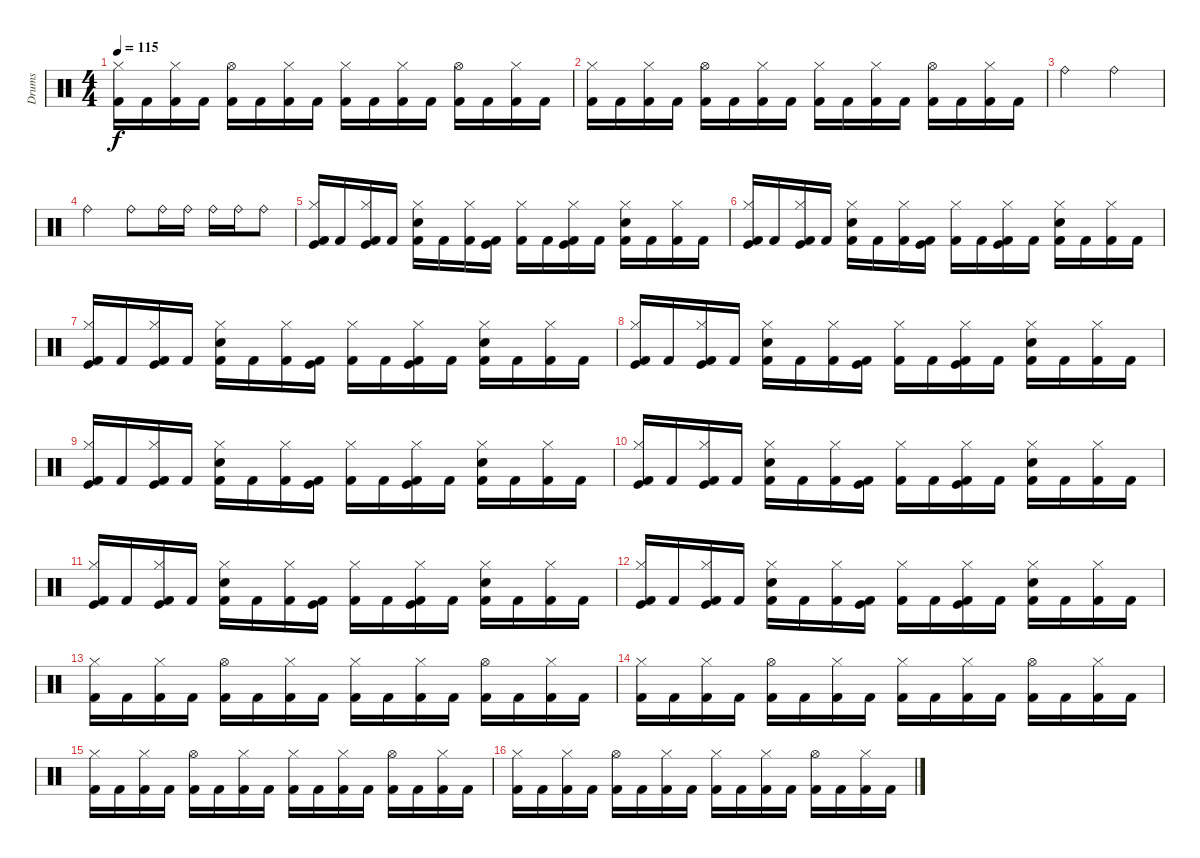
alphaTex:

\track ("Drums" "Drums") {instrument percussion}
\staff {score}
\articulation defaults
\ts (4 4)
\tempo 115
\clef neutral
\ks c
("Kick (hit) 2" "Hi-Hat (closed)").16{dy f} "Kick (hit) 2".16 ("Kick (hit) 2" "Hi-Hat (closed)").16 "Kick (hit) 2".16 ("Kick (hit) 2" "Hi-Hat (open)").16 "Kick (hit) 2".16 ("Kick (hit) 2" "Hi-Hat (closed)").16 "Kick (hit) 2".16 ("Kick (hit) 2" "Hi-Hat (closed)").16 "Kick (hit) 2".16 ("Kick (hit) 2" "Hi-Hat (closed)").16 "Kick (hit) 2".16 ("Kick (hit) 2" "Hi-Hat (open)").16 "Kick (hit) 2".16 ("Kick (hit) 2" "Hi-Hat (closed)").16 "Kick (hit) 2".16 |
("Kick (hit) 2" "Hi-Hat (closed)").16 "Kick (hit) 2".16 ("Kick (hit) 2" "Hi-Hat (closed)").16 "Kick (hit) 2".16 ("Kick (hit) 2" "Hi-Hat (open)").16 "Kick (hit) 2".16 ("Kick (hit) 2" "Hi-Hat (closed)").16 "Kick (hit) 2".16 ("Kick (hit) 2" "Hi-Hat (closed)").16 "Kick (hit) 2".16 ("Kick (hit) 2" "Hi-Hat (closed)").16 "Kick (hit) 2".16 ("Kick (hit) 2" "Hi-Hat (open)").16 "Kick (hit) 2".16 ("Kick (hit) 2" "Hi-Hat (closed)").16 "Kick (hit) 2".16 |
"Ride (bell)".2 "Ride (bell)".2 |
"Ride (bell)".2 "Ride (bell)".8 "Ride (bell)".16 "Ride (bell)".16 "Ride (bell)".16 "Ride (bell)".16 "Ride (bell)".8 |
("Kick (hit) 2" "Hi-Hat (closed)" "Kick (hit)").16 "Kick (hit) 2".16 ("Kick (hit) 2" "Hi-Hat (closed)" "Kick (hit)").16 "Kick (hit) 2".16 ("Kick (hit) 2" "Hi-Hat (closed)" "Snare (hit) 2").16 "Kick (hit) 2".16 ("Kick (hit) 2" "Hi-Hat (closed)").16 ("Kick (hit) 2" "Kick (hit)").16 ("Kick (hit) 2" "Hi-Hat (closed)").16 "Kick (hit) 2".16 ("Kick (hit) 2" "Hi-Hat (closed)" "Kick (hit)").16 "Kick (hit) 2".16 ("Kick (hit) 2" "Hi-Hat (closed)" "Snare (hit) 2").16 "Kick (hit) 2".16 ("Kick (hit) 2" "Hi-Hat (closed)").16 "Kick (hit) 2".16 |
("Kick (hit) 2" "Hi-Hat (closed)" "Kick (hit)").16 "Kick (hit) 2".16 ("Kick (hit) 2" "Hi-Hat (closed)" "Kick (hit)").16 "Kick (hit) 2".16 ("Kick (hit) 2" "Hi-Hat (closed)" "Snare (hit) 2").16 "Kick (hit) 2".16 ("Kick (hit) 2" "Hi-Hat (closed)").16 ("Kick (hit) 2" "Kick (hit)").16 ("Kick (hit) 2" "Hi-Hat (closed)").16 "Kick (hit) 2".16 ("Kick (hit) 2" "Hi-Hat (closed)" "Kick (hit)").16 "Kick (hit) 2".16 ("Kick (hit) 2" "Hi-Hat (closed)" "Snare (hit) 2").16 "Kick (hit) 2".16 ("Kick (hit) 2" "Hi-Hat (closed)").16 "Kick (hit) 2".16 |
("Kick (hit) 2" "Hi-Hat (closed)" "Kick (hit)").16 "Kick (hit) 2".16 ("Kick (hit) 2" "Hi-Hat (closed)" "Kick (hit)").16 "Kick (hit) 2".16 ("Kick (hit) 2" "Hi-Hat (closed)" "Snare (hit) 2").16 "Kick (hit) 2".16 ("Kick (hit) 2" "Hi-Hat (closed)").16 ("Kick (hit) 2" "Kick (hit)").16 ("Kick (hit) 2" "Hi-Hat (closed)").16 "Kick (hit) 2".16 ("Kick (hit) 2" "Hi-Hat (closed)" "Kick (hit)").16 "Kick (hit) 2".16 ("Kick (hit) 2" "Hi-Hat (closed)" "Snare (hit) 2").16 "Kick (hit) 2".16 ("Kick (hit) 2" "Hi-Hat (closed)").16 "Kick (hit) 2".16 |
("Kick (hit) 2" "Hi-Hat (closed)" "Kick (hit)").16 "Kick (hit) 2".16 ("Kick (hit) 2" "Hi-Hat (closed)" "Kick (hit)").16 "Kick (hit) 2".16 ("Kick (hit) 2" "Hi-Hat (closed)" "Snare (hit) 2").16 "Kick (hit) 2".16 ("Kick (hit) 2" "Hi-Hat (closed)").16 ("Kick (hit) 2" "Kick (hit)").16 ("Kick (hit) 2" "Hi-Hat (closed)").16 "Kick (hit) 2".16 ("Kick (hit) 2" "Hi-Hat (closed)" "Kick (hit)").16 "Kick (hit) 2".16 ("Kick (hit) 2" "Hi-Hat (closed)" "Snare (hit) 2").16 "Kick (hit) 2".16 ("Kick (hit) 2" "Hi-Hat (closed)").16 "Kick (hit) 2".16 |
("Kick (hit)" "Hi-Hat (closed)" "Kick (hit) 2").16 "Kick (hit) 2".16 ("Kick (hit) 2" "Hi-Hat (closed)" "Kick (hit)").16 "Kick (hit) 2".16 ("Kick (hit) 2" "Hi-Hat (closed)" "Snare (hit) 2").16 "Kick (hit) 2".16 ("Kick (hit) 2" "Hi-Hat (closed)").16 ("Kick (hit) 2" "Kick (hit)").16 ("Kick (hit) 2" "Hi-Hat (closed)").16 "Kick (hit) 2".16 ("Kick (hit) 2" "Hi-Hat (closed)" "Kick (hit)").16 "Kick (hit) 2".16 ("Kick (hit) 2" "Hi-Hat (closed)" "Snare (hit) 2").16 "Kick (hit) 2".16 ("Kick (hit) 2" "Hi-Hat (closed)").16 "Kick (hit) 2".16 |
("Kick (hit)" "Hi-Hat (closed)" "Kick (hit) 2").16 "Kick (hit) 2".16 ("Kick (hit) 2" "Hi-Hat (closed)" "Kick (hit)").16 "Kick (hit) 2".16 ("Kick (hit) 2" "Hi-Hat (closed)" "Snare (hit) 2").16 "Kick (hit) 2".16 ("Kick (hit) 2" "Hi-Hat (closed)").16 ("Kick (hit) 2" "Kick (hit)").16 ("Kick (hit) 2" "Hi-Hat (closed)").16 "Kick (hit) 2".16 ("Kick (hit) 2" "Hi-Hat (closed)" "Kick (hit)").16 "Kick (hit) 2".16 ("Kick (hit) 2" "Hi-Hat (closed)" "Snare (hit) 2").16 "Kick (hit) 2".16 ("Kick (hit) 2" "Hi-Hat (closed)").16 "Kick (hit) 2".16 |
("Kick (hit)" "Hi-Hat (closed)" "Kick (hit) 2").16 "Kick (hit) 2".16 ("Kick (hit) 2" "Hi-Hat (closed)" "Kick (hit)").16 "Kick (hit) 2".16 ("Kick (hit) 2" "Hi-Hat (closed)" "Snare (hit) 2").16 "Kick (hit) 2".16 ("Kick (hit) 2" "Hi-Hat (closed)").16 ("Kick (hit) 2" "Kick (hit)").16 ("Kick (hit) 2" "Hi-Hat (closed)").16 "Kick (hit) 2".16 ("Kick (hit) 2" "Hi-Hat (closed)" "Kick (hit)").16 "Kick (hit) 2".16 ("Kick (hit) 2" "Hi-Hat (closed)" "Snare (hit) 2").16 "Kick (hit) 2".16 ("Kick (hit) 2" "Hi-Hat (closed)").16 "Kick (hit) 2".16 |
("Kick (hit)" "Hi-Hat (closed)" "Kick (hit) 2").16 "Kick (hit) 2".16 ("Kick (hit) 2" "Hi-Hat (closed)" "Kick (hit)").16 "Kick (hit) 2".16 ("Kick (hit) 2" "Hi-Hat (closed)" "Snare (hit) 2").16 "Kick (hit) 2".16 ("Kick (hit) 2" "Hi-Hat (closed)").16 ("Kick (hit) 2" "Kick (hit)").16 ("Kick (hit) 2" "Hi-Hat (closed)").16 "Kick (hit) 2".16 ("Kick (hit) 2" "Hi-Hat (closed)" "Kick (hit)").16 "Kick (hit) 2".16 ("Kick (hit) 2" "Hi-Hat (closed)" "Snare (hit) 2").16 "Kick (hit) 2".16 ("Kick (hit) 2" "Hi-Hat (closed)").16 "Kick (hit) 2".16 |
("Kick (hit) 2" "Hi-Hat (closed)").16 "Kick (hit) 2".16 ("Kick (hit) 2" "Hi-Hat (closed)").16 "Kick (hit) 2".16 ("Kick (hit) 2" "Hi-Hat (open)").16 "Kick (hit) 2".16 ("Kick (hit) 2" "Hi-Hat (closed)").16 "Kick (hit) 2".16 ("Kick (hit) 2" "Hi-Hat (closed)").16 "Kick (hit) 2".16 ("Kick (hit) 2" "Hi-Hat (closed)").16 "Kick (hit) 2".16 ("Kick (hit) 2" "Hi-Hat (open)").16 "Kick (hit) 2".16 ("Kick (hit) 2" "Hi-Hat (closed)").16 "Kick (hit) 2".16 |
("Hi-Hat (closed)" "Kick (hit) 2").16 "Kick (hit) 2".16 ("Kick (hit) 2" "Hi-Hat (closed)").16 "Kick (hit) 2".16 ("Kick (hit) 2" "Hi-Hat (open)").16 "Kick (hit) 2".16 ("Kick (hit) 2" "Hi-Hat (closed)").16 "Kick (hit) 2".16 ("Kick (hit) 2" "Hi-Hat (closed)").16 "Kick (hit) 2".16 ("Kick (hit) 2" "Hi-Hat (closed)").16 "Kick (hit) 2".16 ("Kick (hit) 2" "Hi-Hat (open)").16 "Kick (hit) 2".16 ("Kick (hit) 2" "Hi-Hat (closed)").16 "Kick (hit) 2".16 |
("Hi-Hat (closed)" "Kick (hit) 2").16 "Kick (hit) 2".16 ("Kick (hit) 2" "Hi-Hat (closed)").16 "Kick (hit) 2".16 ("Kick (hit) 2" "Hi-Hat (open)").16 "Kick (hit) 2".16 ("Kick (hit) 2" "Hi-Hat (closed)").16 "Kick (hit) 2".16 ("Kick (hit) 2" "Hi-Hat (closed)").16 "Kick (hit) 2".16 ("Kick (hit) 2" "Hi-Hat (closed)").16 "Kick (hit) 2".16 ("Kick (hit) 2" "Hi-Hat (open)").16 "Kick (hit) 2".16 ("Kick (hit) 2" "Hi-Hat (closed)").16 "Kick (hit) 2".16 |
("Hi-Hat (closed)" "Kick (hit) 2").16 "Kick (hit) 2".16 ("Kick (hit) 2" "Hi-Hat (closed)").16 "Kick (hit) 2".16 ("Kick (hit) 2" "Hi-Hat (open)").16 "Kick (hit) 2".16 ("Kick (hit) 2" "Hi-Hat (closed)").16 "Kick (hit) 2".16 ("Kick (hit) 2" "Hi-Hat (closed)").16 "Kick (hit) 2".16 ("Kick (hit) 2" "Hi-Hat (closed)").16 "Kick (hit) 2".16 ("Kick (hit) 2" "Hi-Hat (open)").16 "Kick (hit) 2".16 ("Kick (hit) 2" "Hi-Hat (closed)").16 "Kick (hit) 2".16
